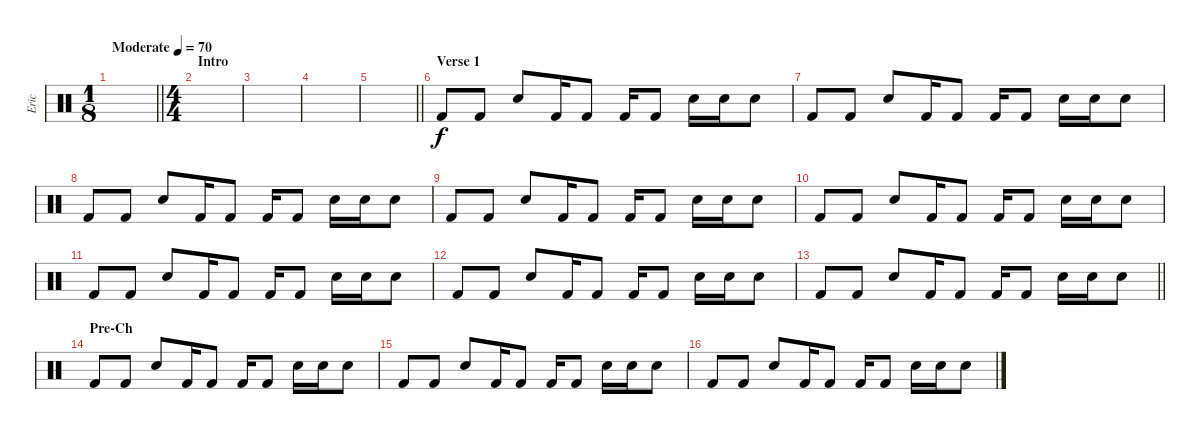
\track ("Eric" "Eric") {instrument percussion}
\staff {score}
\articulation defaults
\ts (1 8)
\tempo (70 "Moderate")
\clef neutral
\barLineRight lightlight
\ks c
|
\ts (4 4)
\section ("" "Intro")
|
|
|
\barLineRight lightlight
|
\section ("" "Verse 1")
"Kick (hit) 2".8 "Kick (hit) 2".8 "Electric Snare (hit)".8 "Kick (hit) 2".16 "Kick (hit) 2".8 "Kick (hit) 2".16 "Kick (hit) 2".8 "Electric Snare (hit)".16 "Electric Snare (hit)".16 "Electric Snare (hit)".8 |
"Kick (hit) 2".8 "Kick (hit) 2".8 "Electric Snare (hit)".8 "Kick (hit) 2".16 "Kick (hit) 2".8 "Kick (hit) 2".16 "Kick (hit) 2".8 "Electric Snare (hit)".16 "Electric Snare (hit)".16 "Electric Snare (hit)".8 |
"Kick (hit) 2".8 "Kick (hit) 2".8 "Electric Snare (hit)".8 "Kick (hit) 2".16 "Kick (hit) 2".8 "Kick (hit) 2".16 "Kick (hit) 2".8 "Electric Snare (hit)".16 "Electric Snare (hit)".16 "Electric Snare (hit)".8 |
"Kick (hit) 2".8 "Kick (hit) 2".8 "Electric Snare (hit)".8 "Kick (hit) 2".16 "Kick (hit) 2".8 "Kick (hit) 2".16 "Kick (hit) 2".8 "Electric Snare (hit)".16 "Electric Snare (hit)".16 "Electric Snare (hit)".8 |
"Kick (hit) 2".8 "Kick (hit) 2".8 "Electric Snare (hit)".8 "Kick (hit) 2".16 "Kick (hit) 2".8 "Kick (hit) 2".16 "Kick (hit) 2".8 "Electric Snare (hit)".16 "Electric Snare (hit)".16 "Electric Snare (hit)".8 |
"Kick (hit) 2".8 "Kick (hit) 2".8 "Electric Snare (hit)".8 "Kick (hit) 2".16 "Kick (hit) 2".8 "Kick (hit) 2".16 "Kick (hit) 2".8 "Electric Snare (hit)".16 "Electric Snare (hit)".16 "Electric Snare (hit)".8 |
"Kick (hit) 2".8 "Kick (hit) 2".8 "Electric Snare (hit)".8 "Kick (hit) 2".16 "Kick (hit) 2".8 "Kick (hit) 2".16 "Kick (hit) 2".8 "Electric Snare (hit)".16 "Electric Snare (hit)".16 "Electric Snare (hit)".8 |
\barLineRight lightlight "Kick (hit) 2".8 "Kick (hit) 2".8 "Electric Snare (hit)".8 "Kick (hit) 2".16 "Kick (hit) 2".8 "Kick (hit) 2".16 "Kick (hit) 2".8 "Electric Snare (hit)".16 "Electric Snare (hit)".16 "Electric Snare (hit)".8
|
\section ("" "Pre-Ch")
"Kick (hit) 2".8 "Kick (hit) 2".8 "Electric Snare (hit)".8 "Kick (hit) 2".16 "Kick (hit) 2".8 "Kick (hit) 2".16 "Kick (hit) 2".8 "Electric Snare (hit)".16 "Electric Snare (hit)".16 "Electric Snare (hit)".8 |
"Kick (hit) 2".8 "Kick (hit) 2".8 "Electric Snare (hit)".8 "Kick (hit) 2".16 "Kick (hit) 2".8 "Kick (hit) 2".16 "Kick (hit) 2".8 "Electric Snare (hit)".16 "Electric Snare (hit)".16 "Electric Snare (hit)".8 |
"Kick (hit) 2".8 "Kick (hit) 2".8 "Electric Snare (hit)".8 "Kick (hit) 2".16 "Kick (hit) 2".8 "Kick (hit) 2".16 "Kick (hit) 2".8 "Electric Snare (hit)".16 "Electric Snare (hit)".16 "Electric Snare (hit)".8
